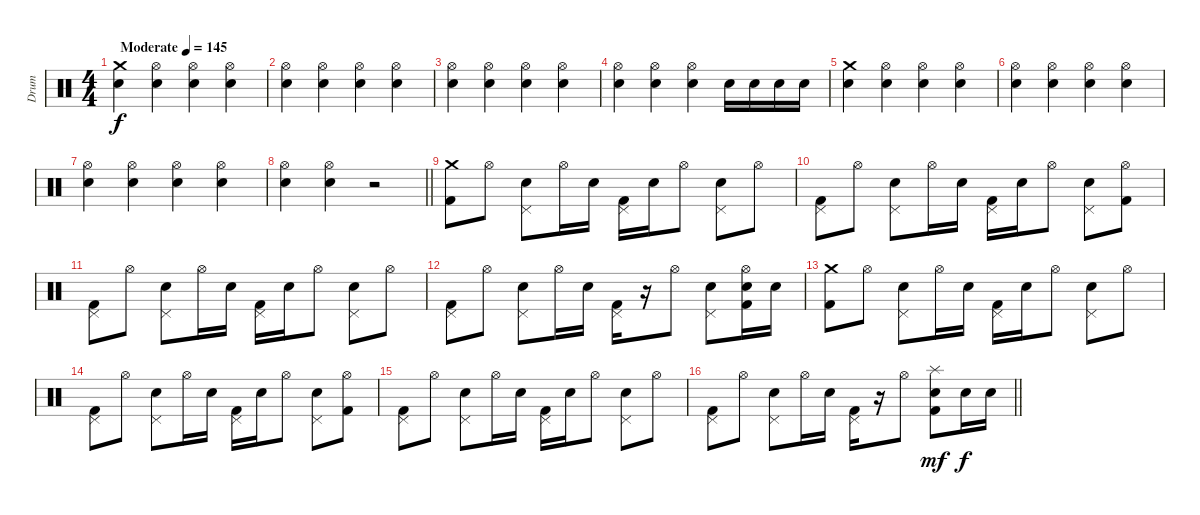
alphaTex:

\track ("Drum" "Drum") {instrument percussion}
\staff {score}
\articulation defaults
\ts (4 4)
\tempo (145 "Moderate")
\clef neutral
\ks c
("Crash medium (hit)" "Electric Snare (hit)").4{dy f} ("Hi-Hat (open)" "Electric Snare (hit)").4 ("Hi-Hat (open)" "Electric Snare (hit)").4 ("Hi-Hat (open)" "Electric Snare (hit)").4 |
("Hi-Hat (open)" "Electric Snare (hit)").4 ("Hi-Hat (open)" "Electric Snare (hit)").4 ("Hi-Hat (open)" "Electric Snare (hit)").4 ("Hi-Hat (open)" "Electric Snare (hit)").4 |
("Hi-Hat (open)" "Electric Snare (hit)").4 ("Hi-Hat (open)" "Electric Snare (hit)").4 ("Hi-Hat (open)" "Electric Snare (hit)").4 ("Hi-Hat (open)" "Electric Snare (hit)").4 |
("Hi-Hat (open)" "Electric Snare (hit)").4 ("Hi-Hat (open)" "Electric Snare (hit)").4 ("Hi-Hat (open)" "Electric Snare (hit)").4 "Electric Snare (hit)".16 "Electric Snare (hit)".16 "Electric Snare (hit)".16 "Electric Snare (hit)".16 |
("Crash medium (hit)" "Electric Snare (hit)").4 ("Hi-Hat (open)" "Electric Snare (hit)").4 ("Hi-Hat (open)" "Electric Snare (hit)").4 ("Hi-Hat (open)" "Electric Snare (hit)").4 |
("Hi-Hat (open)" "Electric Snare (hit)").4 ("Hi-Hat (open)" "Electric Snare (hit)").4 ("Hi-Hat (open)" "Electric Snare (hit)").4 ("Hi-Hat (open)" "Electric Snare (hit)").4 |
("Hi-Hat (open)" "Electric Snare (hit)").4 ("Hi-Hat (open)" "Electric Snare (hit)").4 ("Hi-Hat (open)" "Electric Snare (hit)").4 ("Hi-Hat (open)" "Electric Snare (hit)").4 |
\barLineRight lightlight
("Hi-Hat (open)" "Electric Snare (hit)").4 ("Hi-Hat (open)" "Electric Snare (hit)").4 r.2 |
("Crash medium (hit)" "Kick (hit) 2").8 "Hi-Hat (open)".8 ("Pedal Hi-Hat (hit)" "Snare (hit) 2").8 "Hi-Hat (open)".16 "Snare (hit) 2".16 ("Pedal Hi-Hat (hit)" "Kick (hit) 2").16 "Snare (hit) 2".16 "Hi-Hat (open)".8 ("Pedal Hi-Hat (hit)" "Snare (hit) 2").8 "Hi-Hat (open)".8 |
("Pedal Hi-Hat (hit)" "Kick (hit) 2").8 "Hi-Hat (open)".8 ("Pedal Hi-Hat (hit)" "Snare (hit) 2").8 "Hi-Hat (open)".16 "Snare (hit) 2".16 ("Pedal Hi-Hat (hit)" "Kick (hit) 2").16 "Snare (hit) 2".16 "Hi-Hat (open)".8 ("Pedal Hi-Hat (hit)" "Snare (hit) 2").8 ("Hi-Hat (open)" "Kick (hit) 2").8 |
("Pedal Hi-Hat (hit)" "Kick (hit) 2").8 "Hi-Hat (open)".8 ("Pedal Hi-Hat (hit)" "Snare (hit) 2").8 "Hi-Hat (open)".16 "Snare (hit) 2".16 ("Pedal Hi-Hat (hit)" "Kick (hit) 2").16 "Snare (hit) 2".16 "Hi-Hat (open)".8 ("Pedal Hi-Hat (hit)" "Snare (hit) 2").8 "Hi-Hat (open)".8 |
("Pedal Hi-Hat (hit)" "Kick (hit) 2").8 "Hi-Hat (open)".8 ("Pedal Hi-Hat (hit)" "Snare (hit) 2").8 "Hi-Hat (open)".16 "Snare (hit) 2".16 ("Pedal Hi-Hat (hit)" "Kick (hit) 2").16 r.16 "Hi-Hat (open)".8 ("Pedal Hi-Hat (hit)" "Snare (hit) 2").8 ("Hi-Hat (open)" "Snare (hit) 2" "Kick (hit) 2").16 "Snare (hit) 2".16 |
("Crash medium (hit)" "Kick (hit) 2").8 "Hi-Hat (open)".8 ("Pedal Hi-Hat (hit)" "Snare (hit) 2").8 "Hi-Hat (open)".16 "Snare (hit) 2".16 ("Pedal Hi-Hat (hit)" "Kick (hit) 2").16 "Snare (hit) 2".16 "Hi-Hat (open)".8 ("Pedal Hi-Hat (hit)" "Snare (hit) 2").8 "Hi-Hat (open)".8 |
("Pedal Hi-Hat (hit)" "Kick (hit) 2").8 "Hi-Hat (open)".8 ("Pedal Hi-Hat (hit)" "Snare (hit) 2").8 "Hi-Hat (open)".16 "Snare (hit) 2".16 ("Pedal Hi-Hat (hit)" "Kick (hit) 2").16 "Snare (hit) 2".16 "Hi-Hat (open)".8 ("Pedal Hi-Hat (hit)" "Snare (hit) 2").8 ("Hi-Hat (open)" "Kick (hit) 2").8 |
("Pedal Hi-Hat (hit)" "Kick (hit) 2").8 "Hi-Hat (open)".8 ("Pedal Hi-Hat (hit)" "Snare (hit) 2").8 "Hi-Hat (open)".16 "Snare (hit) 2".16 ("Pedal Hi-Hat (hit)" "Kick (hit) 2").16 "Snare (hit) 2".16 "Hi-Hat (open)".8 ("Pedal Hi-Hat (hit)" "Snare (hit) 2").8 "Hi-Hat (open)".8 |
\barLineRight lightlight
("Pedal Hi-Hat (hit)" "Kick (hit) 2").8 "Hi-Hat (open)".8 ("Pedal Hi-Hat (hit)" "Snare (hit) 2").8 "Hi-Hat (open)".16 "Snare (hit) 2".16 ("Pedal Hi-Hat (hit)" "Kick (hit) 2").16 r.16 "Hi-Hat (open)".8 ("Splash (hit)" "Snare (hit) 2" "Kick (hit) 2").8{dy mf} "Snare (hit) 2".16{dy f} "Snare (hit) 2".16
